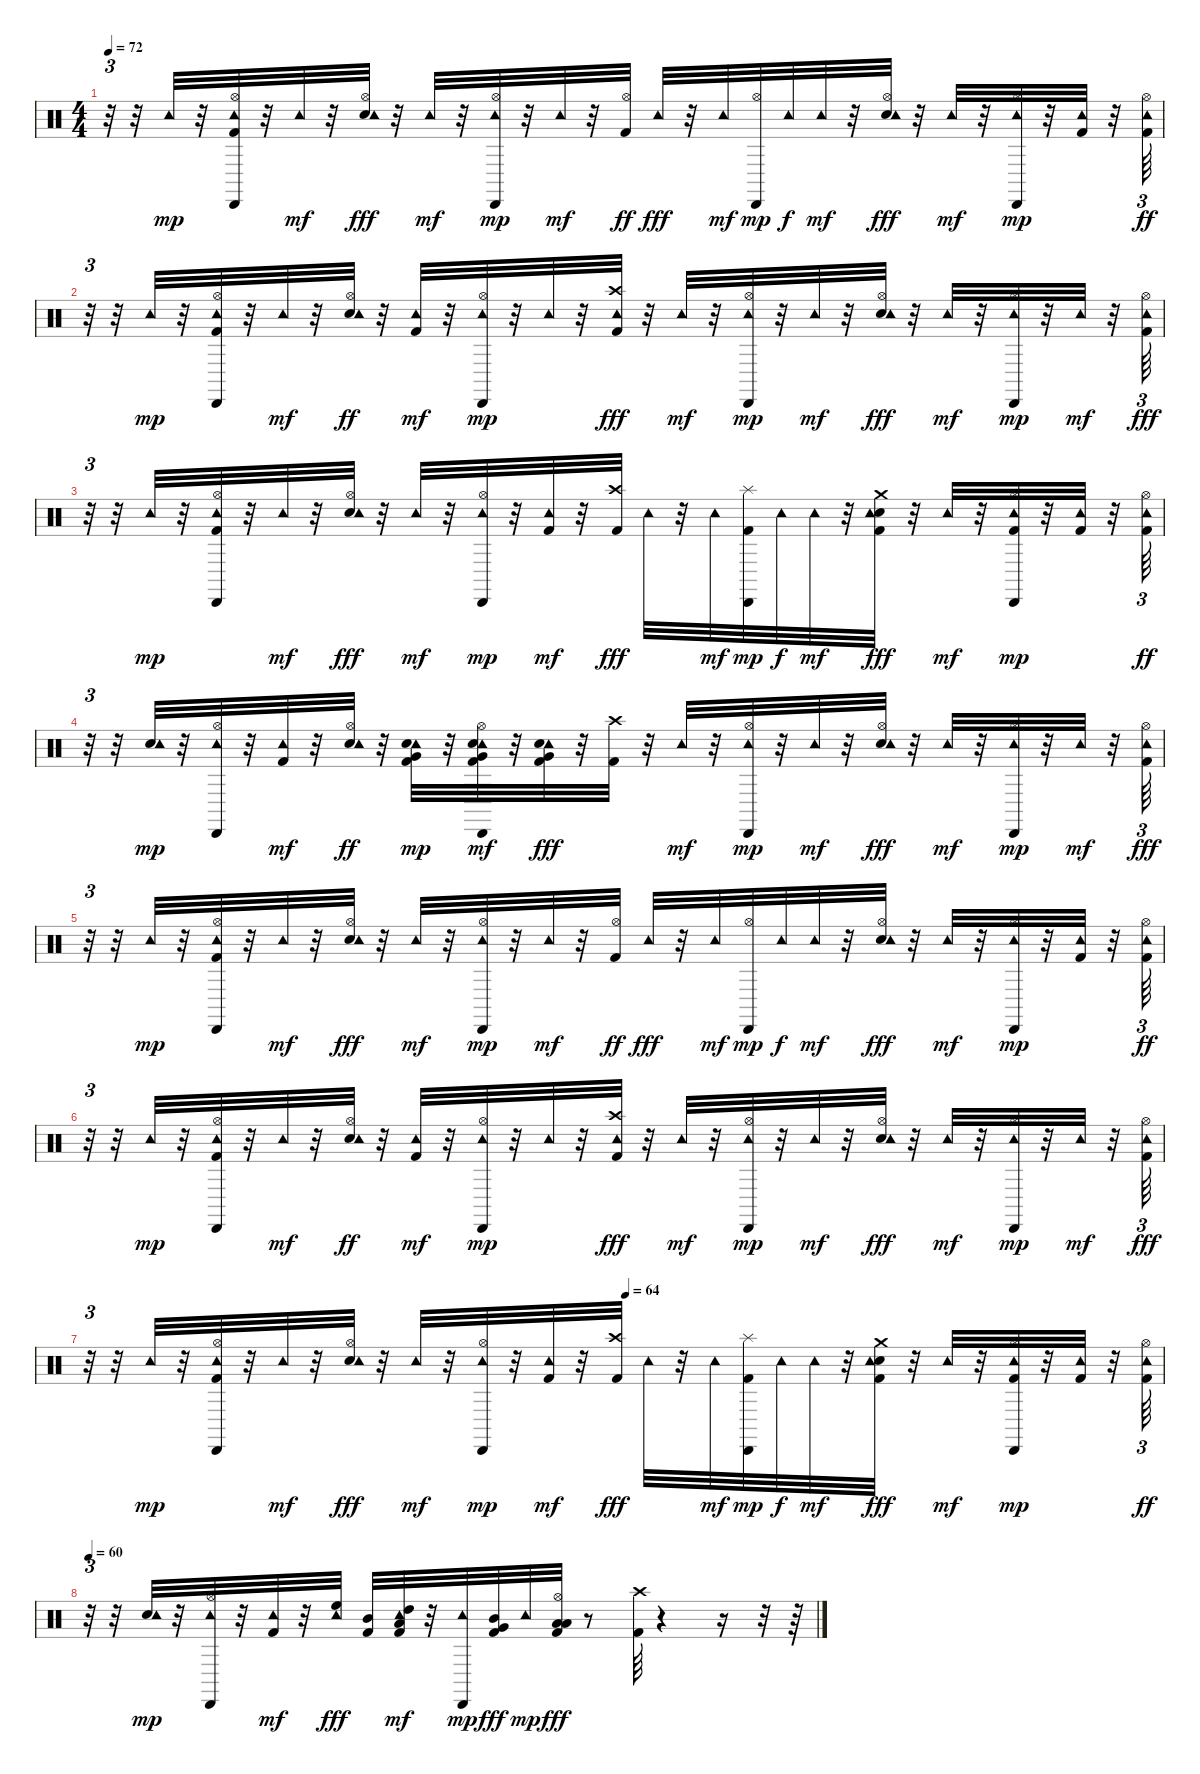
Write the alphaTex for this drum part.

\track "" {instrument percussion}
\staff {score}
\articulation defaults
\ts (4 4)
\tempo 72
\clef neutral
\ks c
r.32{tu (3 2) dy fff} r.32 "Tambourine (hit)".32{dy mp} r.32 ("Kick (hit) 2" "Hi-Hat (open)" "Cabasa (hit)" "Tambourine (hit)").32 r.32 "Tambourine (hit)".32{dy mf} r.32 ("Electric Snare (hit)" "Hi-Hat (open)" "Tambourine (hit)").32{dy fff} r.32 "Tambourine (hit)".32{dy mf} r.32 ("Hi-Hat (open)" "Cabasa (hit)" "Tambourine (hit)").32{dy mp} r.32 "Tambourine (hit)".32{dy mf} r.32 ("Kick (hit) 2" "Hi-Hat (open)").32{dy ff} "Tambourine (hit)".32{dy fff} r.32 "Tambourine (hit)".32{dy mf} ("Hi-Hat (open)" "Cabasa (hit)").32{dy mp} "Tambourine (hit)".32{dy f} "Tambourine (hit)".32{dy mf} r.32 ("Electric Snare (hit)" "Hi-Hat (open)" "Tambourine (hit)").32{dy fff} r.32 "Tambourine (hit)".32{dy mf} r.32 ("Hi-Hat (open)" "Cabasa (hit)" "Tambourine (hit)").32{dy mp} r.32 ("Kick (hit) 2" "Tambourine (hit)").32 r.32 ("Kick (hit) 2" "Hi-Hat (open)" "Tambourine (hit)").64{tu (3 2) dy ff} |
r.32{tu (3 2)} r.32 "Tambourine (hit)".32{dy mp} r.32 ("Kick (hit) 2" "Hi-Hat (open)" "Cabasa (hit)" "Tambourine (hit)").32 r.32 "Tambourine (hit)".32{dy mf} r.32 ("Electric Snare (hit)" "Hi-Hat (open)" "Tambourine (hit)").32{dy ff} r.32 ("Tambourine (hit)" "Kick (hit) 2").32{dy mf} r.32 ("Tambourine (hit)" "Hi-Hat (open)" "Cabasa (hit)").32{dy mp} r.32 "Tambourine (hit)".32 r.32 ("Kick (hit) 2" "Crash high (hit)" "Tambourine (hit)").32{dy fff} r.32 "Tambourine (hit)".32{dy mf} r.32 ("Hi-Hat (open)" "Cabasa (hit)" "Tambourine (hit)").32{dy mp} r.32 "Tambourine (hit)".32{dy mf} r.32 ("Electric Snare (hit)" "Hi-Hat (open)" "Tambourine (hit)").32{dy fff} r.32 "Tambourine (hit)".32{dy mf} r.32 ("Hi-Hat (open)" "Cabasa (hit)" "Tambourine (hit)").32{dy mp} r.32 "Tambourine (hit)".32{dy mf} r.32 ("Kick (hit) 2" "Hi-Hat (open)" "Tambourine (hit)").64{tu (3 2) dy fff} |
r.32{tu (3 2)} r.32 "Tambourine (hit)".32{dy mp} r.32 ("Kick (hit) 2" "Hi-Hat (open)" "Cabasa (hit)" "Tambourine (hit)").32 r.32 "Tambourine (hit)".32{dy mf} r.32 ("Electric Snare (hit)" "Hi-Hat (open)" "Tambourine (hit)").32{dy fff} r.32 "Tambourine (hit)".32{dy mf} r.32 ("Hi-Hat (open)" "Cabasa (hit)" "Tambourine (hit)").32{dy mp} r.32 ("Kick (hit) 2" "Tambourine (hit)").32{dy mf} r.32 ("Kick (hit) 2" "Crash high (hit)").32{dy fff} "Tambourine (hit)".32 r.32 "Tambourine (hit)".32{dy mf} ("Kick (hit) 2" "Splash (hit)" "Cabasa (hit)").32{dy mp} "Tambourine (hit)".32{dy f} "Tambourine (hit)".32{dy mf} r.32 ("Kick (hit) 2" "Electric Snare (hit)" "Crash medium (hit)" "Tambourine (hit)").32{dy fff} r.32 "Tambourine (hit)".32{dy mf} r.32 ("Kick (hit) 2" "Hi-Hat (open)" "Cabasa (hit)" "Tambourine (hit)").32{dy mp} r.32 ("Kick (hit) 2" "Tambourine (hit)").32 r.32 ("Kick (hit) 2" "Hi-Hat (open)" "Tambourine (hit)").64{tu (3 2) dy ff} |
r.32{tu (3 2)} r.32 ("Electric Snare (hit)" "Tambourine (hit)").32{dy mp} r.32 ("Hi-Hat (open)" "Cabasa (hit)" "Tambourine (hit)").32 r.32 ("Kick (hit) 2" "Tambourine (hit)").32{dy mf} r.32 ("Electric Snare (hit)" "Hi-Hat (open)" "Tambourine (hit)").32{dy ff} r.32 ("Kick (hit) 2" "Very Low Tom (hit)" "Tambourine (hit)" "Electric Snare (hit)").32{dy mp} r.32 ("Tambourine (hit)" "Very Low Tom (hit)" "Hi-Hat (open)" "Cabasa (hit)" "Kick (hit) 2" "Electric Snare (hit)").32{dy mf} r.32 ("Tambourine (hit)" "Kick (hit) 2" "Electric Snare (hit)" "Very Low Tom (hit)").32{dy fff} r.32 ("Kick (hit) 2" "Crash high (hit)").32 r.32 "Tambourine (hit)".32{dy mf} r.32 ("Hi-Hat (open)" "Cabasa (hit)" "Tambourine (hit)").32{dy mp} r.32 "Tambourine (hit)".32{dy mf} r.32 ("Electric Snare (hit)" "Hi-Hat (open)" "Tambourine (hit)").32{dy fff} r.32 "Tambourine (hit)".32{dy mf} r.32 ("Hi-Hat (open)" "Cabasa (hit)" "Tambourine (hit)").32{dy mp} r.32 "Tambourine (hit)".32{dy mf} r.32 ("Kick (hit) 2" "Hi-Hat (open)" "Tambourine (hit)").64{tu (3 2) dy fff} |
r.32{tu (3 2)} r.32 "Tambourine (hit)".32{dy mp} r.32 ("Kick (hit) 2" "Hi-Hat (open)" "Cabasa (hit)" "Tambourine (hit)").32 r.32 "Tambourine (hit)".32{dy mf} r.32 ("Electric Snare (hit)" "Hi-Hat (open)" "Tambourine (hit)").32{dy fff} r.32 "Tambourine (hit)".32{dy mf} r.32 ("Hi-Hat (open)" "Cabasa (hit)" "Tambourine (hit)").32{dy mp} r.32 "Tambourine (hit)".32{dy mf} r.32 ("Kick (hit) 2" "Hi-Hat (open)").32{dy ff} "Tambourine (hit)".32{dy fff} r.32 "Tambourine (hit)".32{dy mf} ("Hi-Hat (open)" "Cabasa (hit)").32{dy mp} "Tambourine (hit)".32{dy f} "Tambourine (hit)".32{dy mf} r.32 ("Electric Snare (hit)" "Hi-Hat (open)" "Tambourine (hit)").32{dy fff} r.32 "Tambourine (hit)".32{dy mf} r.32 ("Hi-Hat (open)" "Cabasa (hit)" "Tambourine (hit)").32{dy mp} r.32 ("Kick (hit) 2" "Tambourine (hit)").32 r.32 ("Kick (hit) 2" "Hi-Hat (open)" "Tambourine (hit)").64{tu (3 2) dy ff} |
r.32{tu (3 2)} r.32 "Tambourine (hit)".32{dy mp} r.32 ("Kick (hit) 2" "Hi-Hat (open)" "Cabasa (hit)" "Tambourine (hit)").32 r.32 "Tambourine (hit)".32{dy mf} r.32 ("Electric Snare (hit)" "Hi-Hat (open)" "Tambourine (hit)").32{dy ff} r.32 ("Tambourine (hit)" "Kick (hit) 2").32{dy mf} r.32 ("Tambourine (hit)" "Hi-Hat (open)" "Cabasa (hit)").32{dy mp} r.32 "Tambourine (hit)".32 r.32 ("Kick (hit) 2" "Crash high (hit)" "Tambourine (hit)").32{dy fff} r.32 "Tambourine (hit)".32{dy mf} r.32 ("Hi-Hat (open)" "Cabasa (hit)" "Tambourine (hit)").32{dy mp} r.32 "Tambourine (hit)".32{dy mf} r.32 ("Electric Snare (hit)" "Hi-Hat (open)" "Tambourine (hit)").32{dy fff} r.32 "Tambourine (hit)".32{dy mf} r.32 ("Hi-Hat (open)" "Cabasa (hit)" "Tambourine (hit)").32{dy mp} r.32 "Tambourine (hit)".32{dy mf} r.32 ("Kick (hit) 2" "Hi-Hat (open)" "Tambourine (hit)").64{tu (3 2) dy fff} |
\tempo (64 0.5)
r.32{tu (3 2)} r.32 "Tambourine (hit)".32{dy mp} r.32 ("Kick (hit) 2" "Hi-Hat (open)" "Cabasa (hit)" "Tambourine (hit)").32 r.32 "Tambourine (hit)".32{dy mf} r.32 ("Electric Snare (hit)" "Hi-Hat (open)" "Tambourine (hit)").32{dy fff} r.32 "Tambourine (hit)".32{dy mf} r.32 ("Hi-Hat (open)" "Cabasa (hit)" "Tambourine (hit)").32{dy mp} r.32 ("Kick (hit) 2" "Tambourine (hit)").32{dy mf} r.32 ("Kick (hit) 2" "Crash high (hit)").32{dy fff} "Tambourine (hit)".32 r.32 "Tambourine (hit)".32{dy mf} ("Kick (hit) 2" "Splash (hit)" "Cabasa (hit)").32{dy mp} "Tambourine (hit)".32{dy f} "Tambourine (hit)".32{dy mf} r.32 ("Kick (hit) 2" "Electric Snare (hit)" "Crash medium (hit)" "Tambourine (hit)").32{dy fff} r.32 "Tambourine (hit)".32{dy mf} r.32 ("Kick (hit) 2" "Hi-Hat (open)" "Cabasa (hit)" "Tambourine (hit)").32{dy mp} r.32 ("Kick (hit) 2" "Tambourine (hit)").32 r.32 ("Kick (hit) 2" "Hi-Hat (open)" "Tambourine (hit)").64{tu (3 2) dy ff} |
\tempo 60
r.32{tu (3 2)} r.32 ("Electric Snare (hit)" "Tambourine (hit)").32{dy mp} r.32 ("Hi-Hat (open)" "Cabasa (hit)" "Tambourine (hit)").32 r.32 ("Kick (hit) 2" "Tambourine (hit)").32{dy mf} r.32 ("Tambourine (hit)" "High Floor Tom (hit)").32{dy fff} ("Mid Tom (hit)" "Kick (hit) 2").32 ("Low Tom (hit)" "Kick (hit) 2" "High Tom (hit)" "Tambourine (hit)").32{dy mf} r.32 ("Tambourine (hit)" "Cabasa (hit)").32{dy mp} ("Kick (hit) 2" "Very Low Tom (hit)" "Mid Tom (hit)").32{dy fff} "Tambourine (hit)".32{dy mp} ("Hi-Hat (open)" "Low Floor Tom (hit)" "Low Tom (hit)" "Kick (hit) 2").32{dy fff} r.8 ("Crash high (hit)" "Kick (hit) 2").64 r.4 r.16 r.32 r.64
